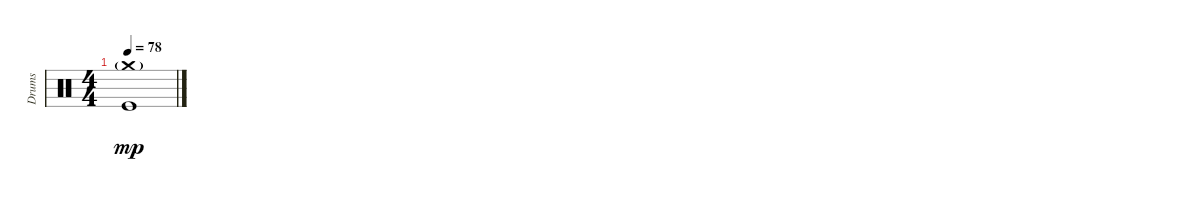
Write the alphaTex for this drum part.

\track ("Drums" "Drums") {instrument percussion}
\staff {score}
\articulation defaults
\ts (4 4)
\tempo 78
\clef neutral
\ks c
("Crash medium (hit)"{g} "Kick (hit)").1{dy mp}
